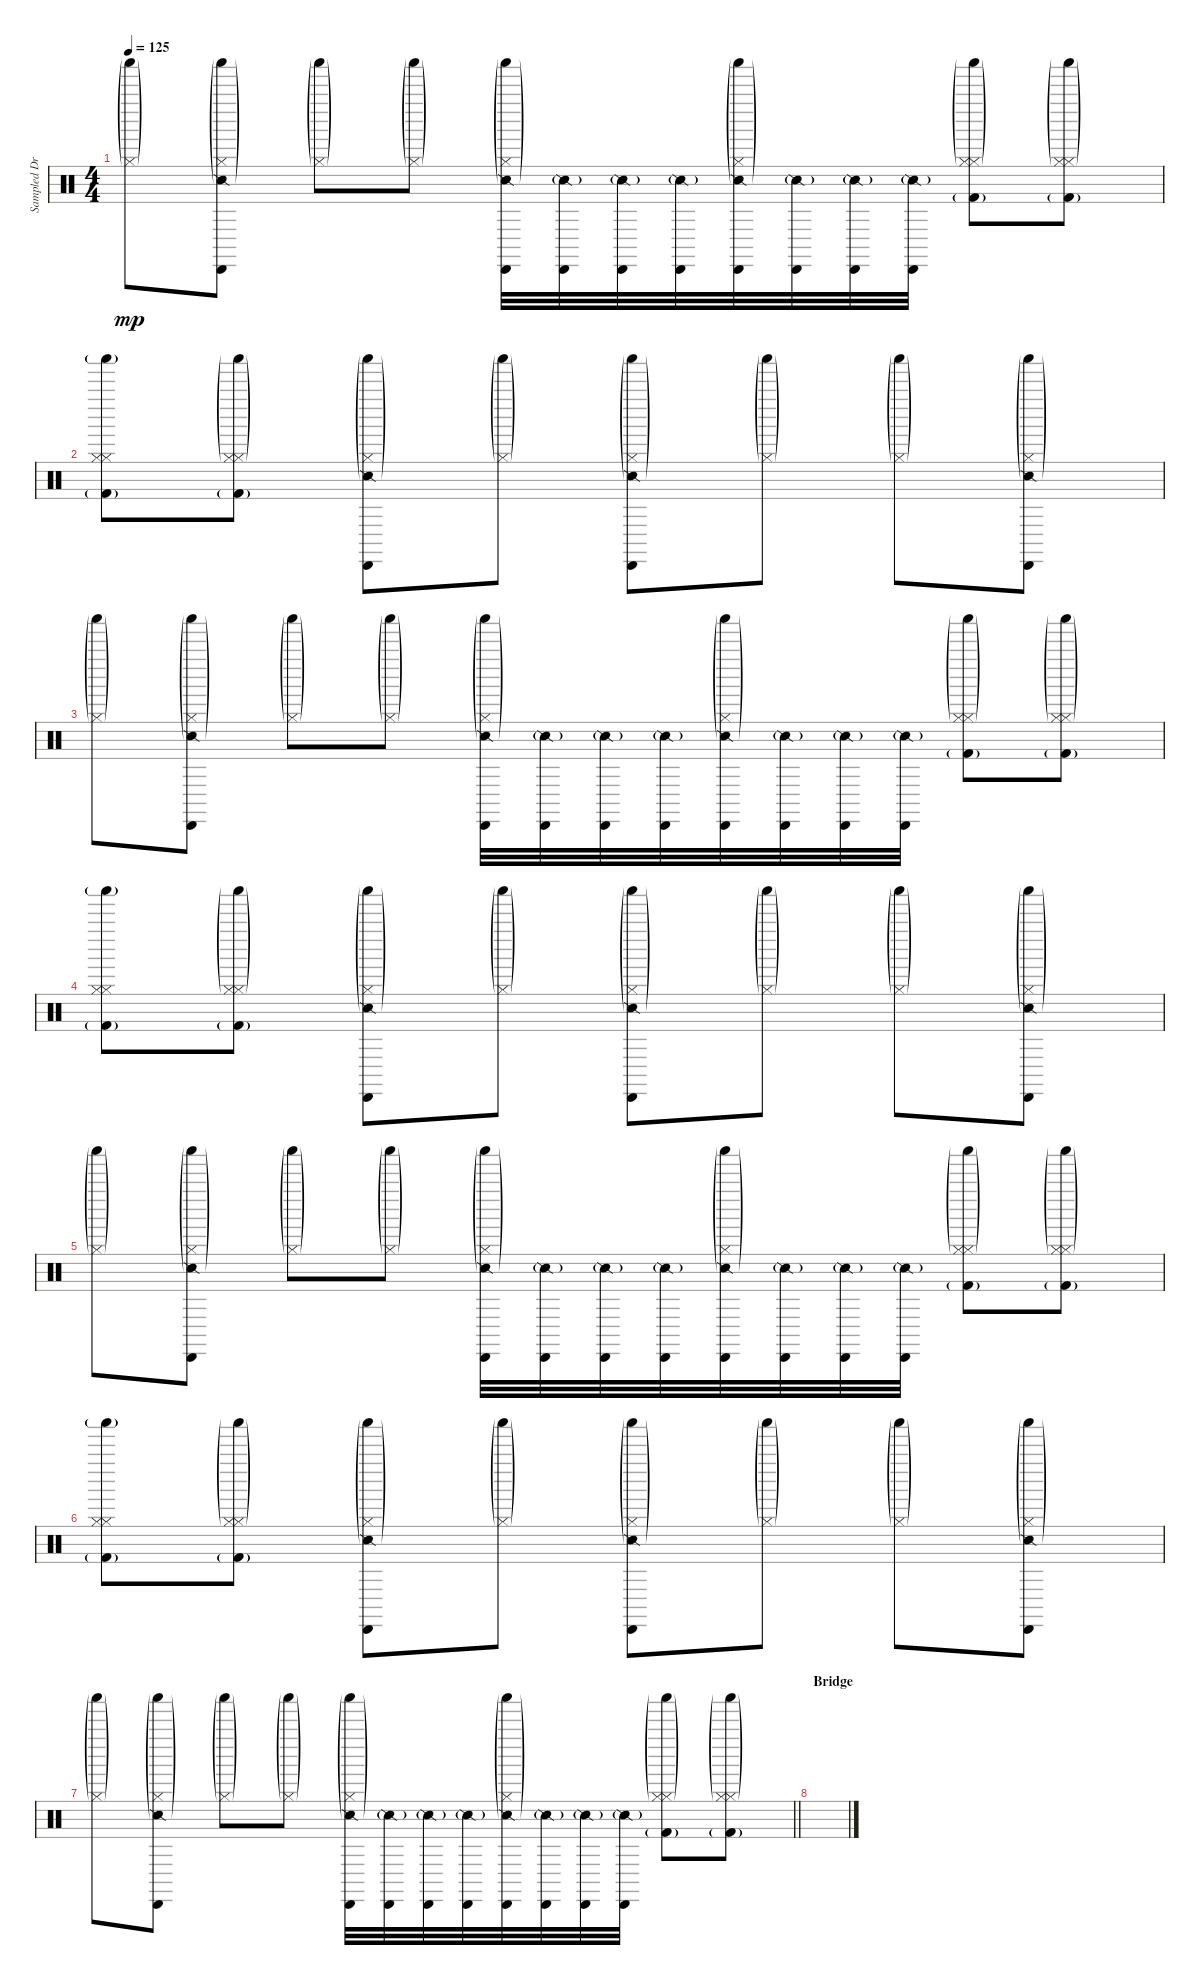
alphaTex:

\track ("Sampled Drums" "Sampled Dr") {instrument percussion}
\staff {score}
\articulation defaults
\ts (4 4)
\tempo 125
\clef neutral
\ks c
("Shaker (hit)"{g} "Hi-Hat (closed)"{g}).8{dy mp} ("Shaker (hit)"{g} "Hi-Hat (closed)"{g} "Snare (side stick) 2"{g} "Cabasa (hit)").8 ("Shaker (hit)"{g} "Hi-Hat (closed)"{g}).8 ("Shaker (hit)"{g} "Hi-Hat (closed)"{g}).8 ("Shaker (hit)"{g} "Hi-Hat (closed)"{g} "Snare (side stick) 2"{g} "Cabasa (hit)").32 ("Snare (side stick) 2"{g} "Cabasa (hit)").32 ("Snare (side stick) 2"{g} "Cabasa (hit)").32 ("Snare (side stick) 2"{g} "Cabasa (hit)").32 ("Shaker (hit)"{g} "Hi-Hat (closed)"{g} "Snare (side stick) 2"{g} "Cabasa (hit)").32 ("Snare (side stick) 2"{g} "Cabasa (hit)").32 ("Snare (side stick) 2"{g} "Cabasa (hit)").32 ("Snare (side stick) 2"{g} "Cabasa (hit)").32 ("Shaker (hit)"{g} "Hi-Hat (closed)"{g} "Kick (hit) 2"{g} "Hi-Hat (closed)").8 ("Shaker (hit)"{g} "Hi-Hat (closed)"{g} "Kick (hit) 2"{g} "Hi-Hat (closed)").8 |
("Shaker (hit)"{g} "Hi-Hat (closed)" "Kick (hit) 2"{g} "Hi-Hat (closed)").8 ("Shaker (hit)"{g} "Hi-Hat (closed)"{g} "Kick (hit) 2"{g} "Hi-Hat (closed)").8 ("Shaker (hit)"{g} "Hi-Hat (closed)"{g} "Snare (side stick) 2"{g} "Cabasa (hit)").8 ("Shaker (hit)"{g} "Hi-Hat (closed)"{g}).8 ("Shaker (hit)"{g} "Hi-Hat (closed)"{g} "Snare (side stick) 2"{g} "Cabasa (hit)").8 ("Shaker (hit)"{g} "Hi-Hat (closed)"{g}).8 ("Shaker (hit)"{g} "Hi-Hat (closed)"{g}).8 ("Shaker (hit)"{g} "Hi-Hat (closed)"{g} "Snare (side stick) 2"{g} "Cabasa (hit)").8 |
("Shaker (hit)"{g} "Hi-Hat (closed)"{g}).8 ("Shaker (hit)"{g} "Hi-Hat (closed)"{g} "Snare (side stick) 2"{g} "Cabasa (hit)").8 ("Shaker (hit)"{g} "Hi-Hat (closed)"{g}).8 ("Shaker (hit)"{g} "Hi-Hat (closed)"{g}).8 ("Shaker (hit)"{g} "Hi-Hat (closed)"{g} "Snare (side stick) 2"{g} "Cabasa (hit)").32 ("Snare (side stick) 2"{g} "Cabasa (hit)").32 ("Snare (side stick) 2"{g} "Cabasa (hit)").32 ("Snare (side stick) 2"{g} "Cabasa (hit)").32 ("Shaker (hit)"{g} "Hi-Hat (closed)"{g} "Snare (side stick) 2"{g} "Cabasa (hit)").32 ("Snare (side stick) 2"{g} "Cabasa (hit)").32 ("Snare (side stick) 2"{g} "Cabasa (hit)").32 ("Snare (side stick) 2"{g} "Cabasa (hit)").32 ("Shaker (hit)"{g} "Hi-Hat (closed)"{g} "Kick (hit) 2"{g} "Hi-Hat (closed)").8 ("Shaker (hit)"{g} "Hi-Hat (closed)"{g} "Kick (hit) 2"{g} "Hi-Hat (closed)").8 |
("Shaker (hit)"{g} "Hi-Hat (closed)" "Kick (hit) 2"{g} "Hi-Hat (closed)").8 ("Shaker (hit)"{g} "Hi-Hat (closed)"{g} "Kick (hit) 2"{g} "Hi-Hat (closed)").8 ("Shaker (hit)"{g} "Hi-Hat (closed)"{g} "Snare (side stick) 2"{g} "Cabasa (hit)").8 ("Shaker (hit)"{g} "Hi-Hat (closed)"{g}).8 ("Shaker (hit)"{g} "Hi-Hat (closed)"{g} "Snare (side stick) 2"{g} "Cabasa (hit)").8 ("Shaker (hit)"{g} "Hi-Hat (closed)"{g}).8 ("Shaker (hit)"{g} "Hi-Hat (closed)"{g}).8 ("Shaker (hit)"{g} "Hi-Hat (closed)"{g} "Snare (side stick) 2"{g} "Cabasa (hit)").8 |
("Shaker (hit)"{g} "Hi-Hat (closed)"{g}).8 ("Shaker (hit)"{g} "Hi-Hat (closed)"{g} "Snare (side stick) 2"{g} "Cabasa (hit)").8 ("Shaker (hit)"{g} "Hi-Hat (closed)"{g}).8 ("Shaker (hit)"{g} "Hi-Hat (closed)"{g}).8 ("Shaker (hit)"{g} "Hi-Hat (closed)"{g} "Snare (side stick) 2"{g} "Cabasa (hit)").32 ("Snare (side stick) 2"{g} "Cabasa (hit)").32 ("Snare (side stick) 2"{g} "Cabasa (hit)").32 ("Snare (side stick) 2"{g} "Cabasa (hit)").32 ("Shaker (hit)"{g} "Hi-Hat (closed)"{g} "Snare (side stick) 2"{g} "Cabasa (hit)").32 ("Snare (side stick) 2"{g} "Cabasa (hit)").32 ("Snare (side stick) 2"{g} "Cabasa (hit)").32 ("Snare (side stick) 2"{g} "Cabasa (hit)").32 ("Shaker (hit)"{g} "Hi-Hat (closed)"{g} "Kick (hit) 2"{g} "Hi-Hat (closed)").8 ("Shaker (hit)"{g} "Hi-Hat (closed)"{g} "Kick (hit) 2"{g} "Hi-Hat (closed)").8 |
("Shaker (hit)"{g} "Hi-Hat (closed)" "Kick (hit) 2"{g} "Hi-Hat (closed)").8 ("Shaker (hit)"{g} "Hi-Hat (closed)"{g} "Kick (hit) 2"{g} "Hi-Hat (closed)").8 ("Shaker (hit)"{g} "Hi-Hat (closed)"{g} "Snare (side stick) 2"{g} "Cabasa (hit)").8 ("Shaker (hit)"{g} "Hi-Hat (closed)"{g}).8 ("Shaker (hit)"{g} "Hi-Hat (closed)"{g} "Snare (side stick) 2"{g} "Cabasa (hit)").8 ("Shaker (hit)"{g} "Hi-Hat (closed)"{g}).8 ("Shaker (hit)"{g} "Hi-Hat (closed)"{g}).8 ("Shaker (hit)"{g} "Hi-Hat (closed)"{g} "Snare (side stick) 2"{g} "Cabasa (hit)").8 |
\barLineRight lightlight
("Shaker (hit)"{g} "Hi-Hat (closed)"{g}).8 ("Shaker (hit)"{g} "Hi-Hat (closed)"{g} "Snare (side stick) 2"{g} "Cabasa (hit)").8 ("Shaker (hit)"{g} "Hi-Hat (closed)"{g}).8 ("Shaker (hit)"{g} "Hi-Hat (closed)"{g}).8 ("Shaker (hit)"{g} "Hi-Hat (closed)"{g} "Snare (side stick) 2"{g} "Cabasa (hit)").32 ("Snare (side stick) 2"{g} "Cabasa (hit)").32 ("Snare (side stick) 2"{g} "Cabasa (hit)").32 ("Snare (side stick) 2"{g} "Cabasa (hit)").32 ("Shaker (hit)"{g} "Hi-Hat (closed)"{g} "Snare (side stick) 2"{g} "Cabasa (hit)").32 ("Snare (side stick) 2"{g} "Cabasa (hit)").32 ("Snare (side stick) 2"{g} "Cabasa (hit)").32 ("Snare (side stick) 2"{g} "Cabasa (hit)").32 ("Shaker (hit)"{g} "Hi-Hat (closed)"{g} "Kick (hit) 2"{g} "Hi-Hat (closed)").8 ("Shaker (hit)"{g} "Hi-Hat (closed)"{g} "Kick (hit) 2"{g} "Hi-Hat (closed)").8 |
\section ("" "Bridge")
